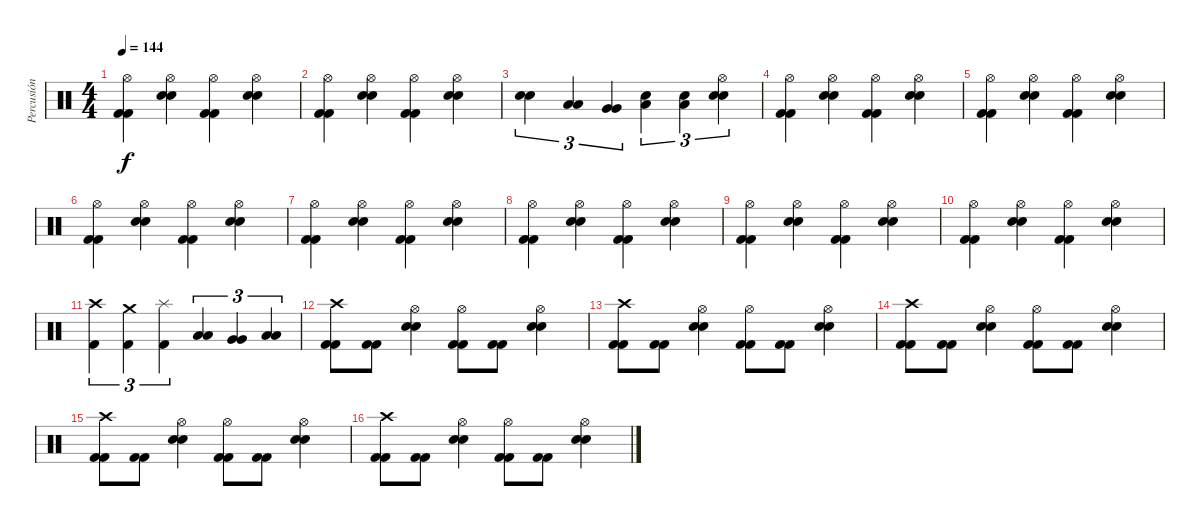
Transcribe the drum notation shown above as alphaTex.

\track ("Percusión" "Percusión") {instrument percussion}
\staff {score}
\articulation defaults
\ts (4 4)
\tempo 144
\clef neutral
\ks c
("Hi-Hat (open)" "Kick (hit) 2" "Kick (hit) 2").4{dy f} ("Hi-Hat (open)" "Snare (hit) 2" "Snare (hit) 2").4 ("Hi-Hat (open)" "Kick (hit) 2" "Kick (hit) 2").4 ("Hi-Hat (open)" "Snare (hit) 2" "Snare (hit) 2").4 |
("Hi-Hat (open)" "Kick (hit) 2" "Kick (hit) 2").4 ("Hi-Hat (open)" "Snare (hit) 2" "Snare (hit) 2").4 ("Hi-Hat (open)" "Kick (hit) 2" "Kick (hit) 2").4 ("Hi-Hat (open)" "Snare (hit) 2" "Snare (hit) 2").4 |
("Snare (hit) 2" "Snare (hit) 2").4{tu (3 2)} ("Low Tom (hit)" "Low Tom (hit)").4{tu (3 2)} ("Very Low Tom (hit)" "Very Low Tom (hit)").4{tu (3 2)} ("Snare (hit) 2" "Low Tom (hit)").4{tu (3 2)} ("Snare (hit) 2" "Low Tom (hit)").4{tu (3 2)} ("Hi-Hat (open)" "Snare (hit) 2" "Snare (hit) 2").4{tu (3 2)} |
("Hi-Hat (open)" "Kick (hit) 2" "Kick (hit) 2").4 ("Hi-Hat (open)" "Snare (hit) 2" "Snare (hit) 2").4 ("Hi-Hat (open)" "Kick (hit) 2" "Kick (hit) 2").4 ("Hi-Hat (open)" "Snare (hit) 2" "Snare (hit) 2").4 |
("Hi-Hat (open)" "Kick (hit) 2" "Kick (hit) 2").4 ("Hi-Hat (open)" "Snare (hit) 2" "Snare (hit) 2").4 ("Hi-Hat (open)" "Kick (hit) 2" "Kick (hit) 2").4 ("Hi-Hat (open)" "Snare (hit) 2" "Snare (hit) 2").4 |
("Hi-Hat (open)" "Kick (hit) 2" "Kick (hit) 2").4 ("Hi-Hat (open)" "Snare (hit) 2" "Snare (hit) 2").4 ("Hi-Hat (open)" "Kick (hit) 2" "Kick (hit) 2").4 ("Hi-Hat (open)" "Snare (hit) 2" "Snare (hit) 2").4 |
("Hi-Hat (open)" "Kick (hit) 2" "Kick (hit) 2").4 ("Hi-Hat (open)" "Snare (hit) 2" "Snare (hit) 2").4 ("Hi-Hat (open)" "Kick (hit) 2" "Kick (hit) 2").4 ("Hi-Hat (open)" "Snare (hit) 2" "Snare (hit) 2").4 |
("Hi-Hat (open)" "Kick (hit) 2" "Kick (hit) 2").4 ("Hi-Hat (open)" "Snare (hit) 2" "Snare (hit) 2").4 ("Hi-Hat (open)" "Kick (hit) 2" "Kick (hit) 2").4 ("Hi-Hat (open)" "Snare (hit) 2" "Snare (hit) 2").4 |
("Hi-Hat (open)" "Kick (hit) 2" "Kick (hit) 2").4 ("Hi-Hat (open)" "Snare (hit) 2" "Snare (hit) 2").4 ("Hi-Hat (open)" "Kick (hit) 2" "Kick (hit) 2").4 ("Hi-Hat (open)" "Snare (hit) 2" "Snare (hit) 2").4 |
("Hi-Hat (open)" "Kick (hit) 2" "Kick (hit) 2").4 ("Hi-Hat (open)" "Snare (hit) 2" "Snare (hit) 2").4 ("Hi-Hat (open)" "Kick (hit) 2" "Kick (hit) 2").4 ("Hi-Hat (open)" "Snare (hit) 2" "Snare (hit) 2").4 |
("Crash high (hit)" "Kick (hit) 2").4{tu (3 2)} ("Crash medium (hit)" "Kick (hit) 2").4{tu (3 2)} ("Splash (hit)" "Kick (hit) 2").4{tu (3 2)} ("Low Tom (hit)" "Low Tom (hit)").4{tu (3 2)} ("Very Low Tom (hit)" "Very Low Tom (hit)").4{tu (3 2)} ("Low Floor Tom (hit)" "Low Floor Tom (hit)").4{tu (3 2)} |
("Crash high (hit)" "Kick (hit) 2" "Kick (hit) 2").8 ("Kick (hit) 2" "Kick (hit) 2").8 ("Hi-Hat (open)" "Snare (hit) 2" "Snare (hit) 2").4 ("Hi-Hat (open)" "Kick (hit) 2" "Kick (hit) 2").8 ("Kick (hit) 2" "Kick (hit) 2").8 ("Hi-Hat (open)" "Snare (hit) 2" "Snare (hit) 2").4 |
("Crash high (hit)" "Kick (hit) 2" "Kick (hit) 2").8 ("Kick (hit) 2" "Kick (hit) 2").8 ("Hi-Hat (open)" "Snare (hit) 2" "Snare (hit) 2").4 ("Hi-Hat (open)" "Kick (hit) 2" "Kick (hit) 2").8 ("Kick (hit) 2" "Kick (hit) 2").8 ("Hi-Hat (open)" "Snare (hit) 2" "Snare (hit) 2").4 |
("Crash high (hit)" "Kick (hit) 2" "Kick (hit) 2").8 ("Kick (hit) 2" "Kick (hit) 2").8 ("Hi-Hat (open)" "Snare (hit) 2" "Snare (hit) 2").4 ("Hi-Hat (open)" "Kick (hit) 2" "Kick (hit) 2").8 ("Kick (hit) 2" "Kick (hit) 2").8 ("Hi-Hat (open)" "Snare (hit) 2" "Snare (hit) 2").4 |
("Crash high (hit)" "Kick (hit) 2" "Kick (hit) 2").8 ("Kick (hit) 2" "Kick (hit) 2").8 ("Hi-Hat (open)" "Snare (hit) 2" "Snare (hit) 2").4 ("Hi-Hat (open)" "Kick (hit) 2" "Kick (hit) 2").8 ("Kick (hit) 2" "Kick (hit) 2").8 ("Hi-Hat (open)" "Snare (hit) 2" "Snare (hit) 2").4 |
("Crash high (hit)" "Kick (hit) 2" "Kick (hit) 2").8 ("Kick (hit) 2" "Kick (hit) 2").8 ("Hi-Hat (open)" "Snare (hit) 2" "Snare (hit) 2").4 ("Hi-Hat (open)" "Kick (hit) 2" "Kick (hit) 2").8 ("Kick (hit) 2" "Kick (hit) 2").8 ("Hi-Hat (open)" "Snare (hit) 2" "Snare (hit) 2").4
